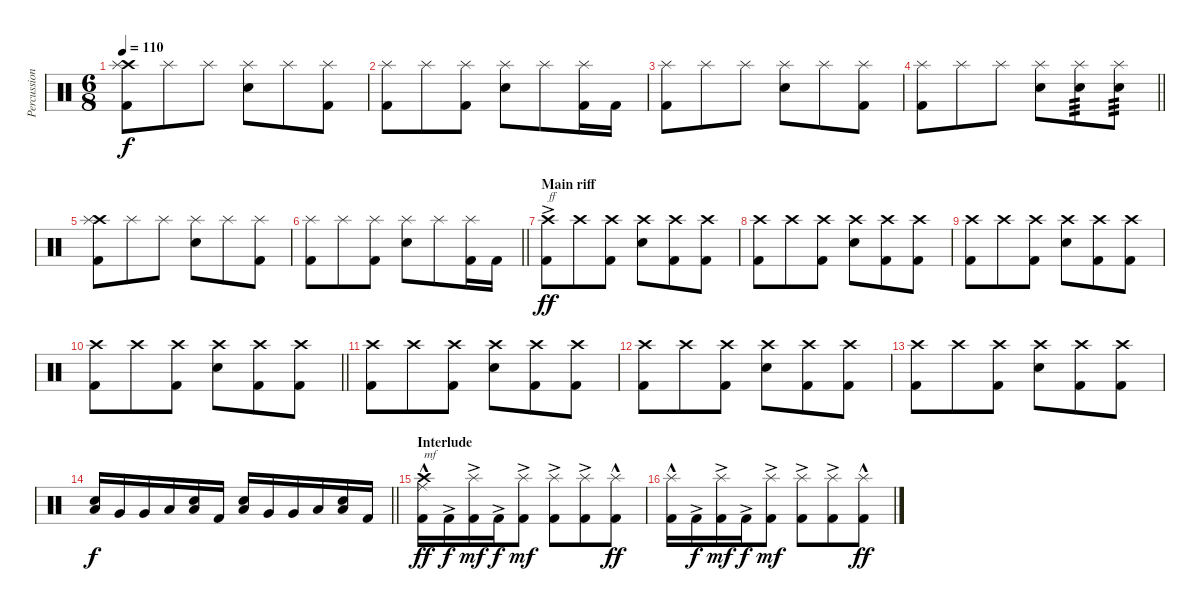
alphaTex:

\track ("Percussion" "Percussion") {instrument percussion}
\staff {score}
\articulation defaults
\ts (6 8)
\section ("" "")
\tempo 110
\clef neutral
\ks c
("Crash high (hit)" "Splash (hit)" "Kick (hit) 2").8{dy f} "Splash (hit)".8 "Splash (hit)".8 ("Splash (hit)" "Snare (hit) 2").8 "Splash (hit)".8 ("Splash (hit)" "Kick (hit) 2").8 |
("Splash (hit)" "Kick (hit) 2").8 "Splash (hit)".8 ("Splash (hit)" "Kick (hit) 2").8 ("Splash (hit)" "Snare (hit) 2").8 "Splash (hit)".8 ("Splash (hit)" "Kick (hit) 2").16 "Kick (hit) 2".16 |
("Splash (hit)" "Kick (hit) 2").8 "Splash (hit)".8 "Splash (hit)".8 ("Splash (hit)" "Snare (hit) 2").8 "Splash (hit)".8 ("Splash (hit)" "Kick (hit) 2").8 |
\barLineRight lightlight
("Splash (hit)" "Kick (hit) 2").8 "Splash (hit)".8 "Splash (hit)".8 ("Splash (hit)" "Snare (hit) 2").8 ("Splash (hit)" "Snare (hit) 2").8{tp 3} ("Splash (hit)" "Snare (hit) 2").8{tp 3} |
\section ("" "")
("Crash high (hit)" "Splash (hit)" "Kick (hit) 2").8 "Splash (hit)".8 "Splash (hit)".8 ("Splash (hit)" "Snare (hit) 2").8 "Splash (hit)".8 ("Splash (hit)" "Kick (hit) 2").8 |
\barLineRight lightlight
("Splash (hit)" "Kick (hit) 2").8 "Splash (hit)".8 ("Splash (hit)" "Kick (hit) 2").8 ("Splash (hit)" "Snare (hit) 2").8 "Splash (hit)".8 ("Splash (hit)" "Kick (hit) 2").16 "Kick (hit) 2".16 |
\section ("" "Main riff")
("Crash high (hit)"{ac} "Kick (hit) 2"{ac}).8{txt "ff" dy ff} "Crash high (hit)".8 ("Crash high (hit)" "Kick (hit) 2").8 ("Crash high (hit)" "Snare (hit) 2").8 ("Crash high (hit)" "Kick (hit) 2").8 ("Crash high (hit)" "Kick (hit) 2").8 |
("Crash high (hit)" "Kick (hit) 2").8 "Crash high (hit)".8 ("Crash high (hit)" "Kick (hit) 2").8 ("Crash high (hit)" "Snare (hit) 2").8 ("Crash high (hit)" "Kick (hit) 2").8 ("Crash high (hit)" "Kick (hit) 2").8 |
("Crash high (hit)" "Kick (hit) 2").8 "Crash high (hit)".8 ("Crash high (hit)" "Kick (hit) 2").8 ("Crash high (hit)" "Snare (hit) 2").8 ("Crash high (hit)" "Kick (hit) 2").8 ("Crash high (hit)" "Kick (hit) 2").8 |
\barLineRight lightlight
("Crash high (hit)" "Kick (hit) 2").8 "Crash high (hit)".8 ("Crash high (hit)" "Kick (hit) 2").8 ("Crash high (hit)" "Snare (hit) 2").8 ("Crash high (hit)" "Kick (hit) 2").8 ("Crash high (hit)" "Kick (hit) 2").8 |
\section ("" "")
("Crash high (hit)" "Kick (hit) 2").8 "Crash high (hit)".8 ("Crash high (hit)" "Kick (hit) 2").8 ("Crash high (hit)" "Snare (hit) 2").8 ("Crash high (hit)" "Kick (hit) 2").8 ("Crash high (hit)" "Kick (hit) 2").8 |
("Crash high (hit)" "Kick (hit) 2").8 "Crash high (hit)".8 ("Crash high (hit)" "Kick (hit) 2").8 ("Crash high (hit)" "Snare (hit) 2").8 ("Crash high (hit)" "Kick (hit) 2").8 ("Crash high (hit)" "Kick (hit) 2").8 |
("Crash high (hit)" "Kick (hit) 2").8 "Crash high (hit)".8 ("Crash high (hit)" "Kick (hit) 2").8 ("Crash high (hit)" "Snare (hit) 2").8 ("Crash high (hit)" "Kick (hit) 2").8 ("Crash high (hit)" "Kick (hit) 2").8 |
\barLineRight lightlight
("Snare (hit) 2" "Low Tom (hit)").16{dy f} "Very Low Tom (hit)".16 "Very Low Tom (hit)".16 "Low Floor Tom (hit)".16 ("Snare (hit) 2" "Low Floor Tom (hit)").16 "Kick (hit) 2".16 ("Snare (hit) 2" "Low Tom (hit)").16 "Very Low Tom (hit)".16 "Very Low Tom (hit)".16 "Low Floor Tom (hit)".16 ("Snare (hit) 2" "Low Floor Tom (hit)").16 "Kick (hit) 2".16 |
\section ("" "Interlude")
("Crash high (hit)" "Ride (middle)" "Kick (hit) 2"{hac}).16{txt "mf" dy ff} "Kick (hit) 2"{ac}.16{dy f} ("Splash (hit)" "Kick (hit) 2"{ac}).16{dy mf} "Kick (hit) 2"{ac}.16{dy f} ("Splash (hit)" "Kick (hit) 2"{ac}).8{dy mf} ("Splash (hit)" "Kick (hit) 2"{ac}).8 ("Splash (hit)" "Kick (hit) 2"{ac}).8 ("Splash (hit)" "Kick (hit) 2"{hac}).8{dy ff} |
("Splash (hit)" "Kick (hit) 2"{hac}).16 "Kick (hit) 2"{ac}.16{dy f} ("Splash (hit)" "Kick (hit) 2"{ac}).16{dy mf} "Kick (hit) 2"{ac}.16{dy f} ("Splash (hit)" "Kick (hit) 2"{ac}).8{dy mf} ("Splash (hit)" "Kick (hit) 2"{ac}).8 ("Splash (hit)" "Kick (hit) 2"{ac}).8 ("Splash (hit)" "Kick (hit) 2"{hac}).8{dy ff}
